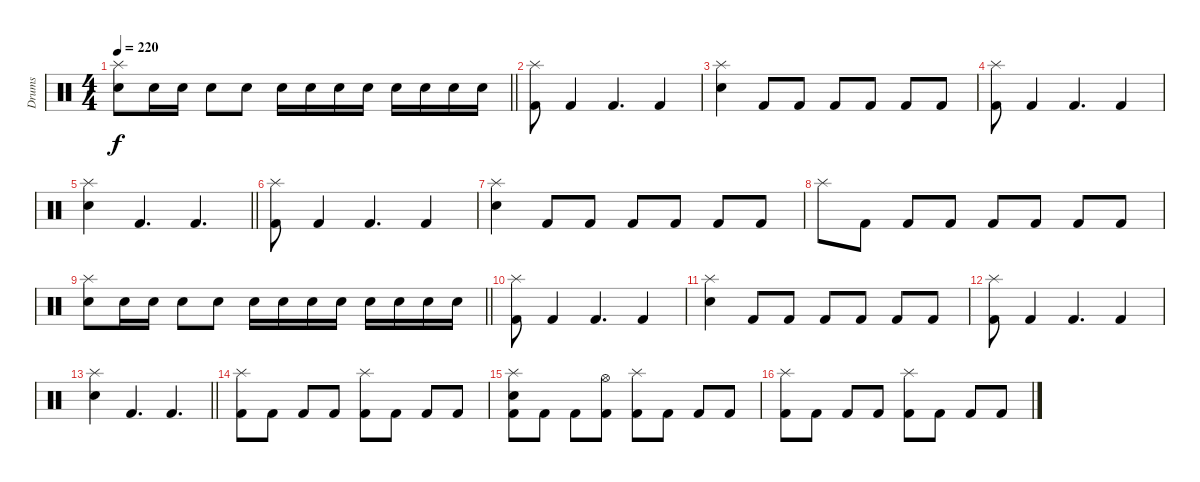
\track ("Drums" "Drums") {instrument percussion}
\staff {score}
\articulation defaults
\ts (4 4)
\tempo 220
\clef neutral
\barLineRight lightlight
\ks c
("Splash (hit)" "Electric Snare (hit)").8{dy f} "Electric Snare (hit)".16 "Electric Snare (hit)".16 "Electric Snare (hit)".8 "Electric Snare (hit)".8 "Electric Snare (hit)".16 "Electric Snare (hit)".16 "Electric Snare (hit)".16 "Electric Snare (hit)".16 "Electric Snare (hit)".16 "Electric Snare (hit)".16 "Electric Snare (hit)".16 "Electric Snare (hit)".16 |
\section ("" "")
("Splash (hit)" "Kick (hit) 2").8{volume 8} "Kick (hit) 2".4 "Kick (hit) 2".4{d} "Kick (hit) 2".4 |
("Splash (hit)" "Electric Snare (hit)").4 "Kick (hit) 2".8 "Kick (hit) 2".8 "Kick (hit) 2".8 "Kick (hit) 2".8 "Kick (hit) 2".8 "Kick (hit) 2".8 |
("Splash (hit)" "Kick (hit) 2").8 "Kick (hit) 2".4 "Kick (hit) 2".4{d} "Kick (hit) 2".4 |
\barLineRight lightlight
("Splash (hit)" "Electric Snare (hit)").4 "Kick (hit) 2".4{d} "Kick (hit) 2".4{d} |
("Splash (hit)" "Kick (hit) 2").8{volume 5} "Kick (hit) 2".4 "Kick (hit) 2".4{d} "Kick (hit) 2".4 |
("Splash (hit)" "Electric Snare (hit)").4 "Kick (hit) 2".8 "Kick (hit) 2".8 "Kick (hit) 2".8 "Kick (hit) 2".8 "Kick (hit) 2".8 "Kick (hit) 2".8 |
"Splash (hit)".8 "Kick (hit) 2".8 "Kick (hit) 2".8 "Kick (hit) 2".8 "Kick (hit) 2".8 "Kick (hit) 2".8 "Kick (hit) 2".8 "Kick (hit) 2".8 |
\barLineRight lightlight
("Splash (hit)" "Electric Snare (hit)").8 "Electric Snare (hit)".16 "Electric Snare (hit)".16 "Electric Snare (hit)".8 "Electric Snare (hit)".8 "Electric Snare (hit)".16 "Electric Snare (hit)".16 "Electric Snare (hit)".16 "Electric Snare (hit)".16 "Electric Snare (hit)".16 "Electric Snare (hit)".16 "Electric Snare (hit)".16 "Electric Snare (hit)".16 |
\section ("" "")
("Splash (hit)" "Kick (hit) 2").8{volume 3} "Kick (hit) 2".4 "Kick (hit) 2".4{d} "Kick (hit) 2".4 |
("Splash (hit)" "Electric Snare (hit)").4 "Kick (hit) 2".8 "Kick (hit) 2".8 "Kick (hit) 2".8 "Kick (hit) 2".8 "Kick (hit) 2".8 "Kick (hit) 2".8 |
("Splash (hit)" "Kick (hit) 2").8 "Kick (hit) 2".4 "Kick (hit) 2".4{d} "Kick (hit) 2".4 |
\barLineRight lightlight
("Splash (hit)" "Electric Snare (hit)").4 "Kick (hit) 2".4{d} "Kick (hit) 2".4{d} |
("Splash (hit)" "Kick (hit) 2").8{volume 0} "Kick (hit) 2".8 "Kick (hit) 2".8 "Kick (hit) 2".8 ("Splash (hit)" "Kick (hit) 2").8 "Kick (hit) 2".8 "Kick (hit) 2".8 "Kick (hit) 2".8 |
("Splash (hit)" "Electric Snare (hit)" "Kick (hit) 2").8 "Kick (hit) 2".8 "Kick (hit) 2".8 ("Hi-Hat (open)" "Kick (hit) 2").8 ("Splash (hit)" "Kick (hit) 2").8 "Kick (hit) 2".8 "Kick (hit) 2".8 "Kick (hit) 2".8 |
("Splash (hit)" "Kick (hit) 2").8 "Kick (hit) 2".8 "Kick (hit) 2".8 "Kick (hit) 2".8 ("Splash (hit)" "Kick (hit) 2").8 "Kick (hit) 2".8 "Kick (hit) 2".8 "Kick (hit) 2".8
